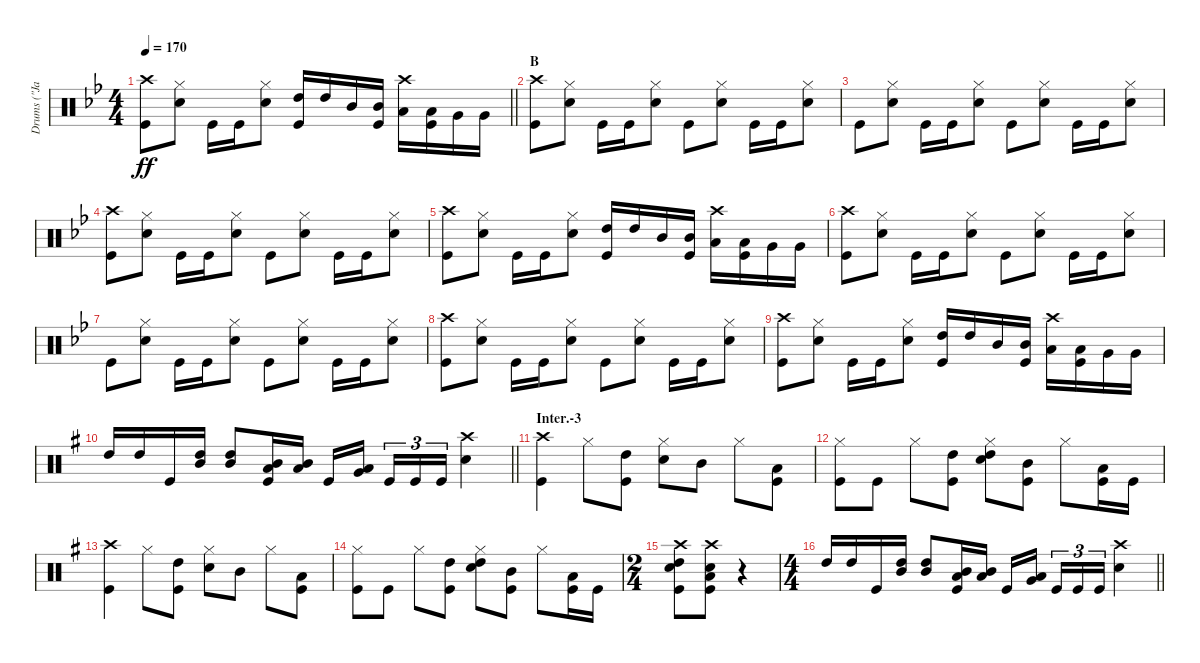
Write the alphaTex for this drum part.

\track ("Drums (\"Jane\")" "Drums (\"Ja") {instrument percussion}
\staff {score}
\articulation defaults
\ts (4 4)
\tempo 170
\clef neutral
\barLineRight lightlight
\ks bb
("Crash high (hit)" "Kick (hit)").8{dy ff} ("Hi-Hat (closed)" "Snare (hit) 2").8 "Kick (hit)".16 "Kick (hit)".16 ("Hi-Hat (closed)" "Snare (hit) 2").8 ("High Tom (hit)" "Kick (hit)").16 "High Tom (hit)".16 "Mid Tom (hit)".16 ("Mid Tom (hit)" "Kick (hit)").16 ("Crash high (hit)" "Low Tom (hit)").16 ("Low Tom (hit)" "Kick (hit)").16 "Very Low Tom (hit)".16 "Very Low Tom (hit)".16 |
\section ("" "B")
("Crash high (hit)" "Kick (hit)").8 ("Hi-Hat (closed)" "Snare (hit) 2").8 "Kick (hit)".16 "Kick (hit)".16 ("Hi-Hat (closed)" "Snare (hit) 2").8 "Kick (hit)".8 ("Hi-Hat (closed)" "Snare (hit) 2").8 "Kick (hit)".16 "Kick (hit)".16 ("Hi-Hat (closed)" "Snare (hit) 2").8 |
"Kick (hit)".8 ("Hi-Hat (closed)" "Snare (hit) 2").8 "Kick (hit)".16 "Kick (hit)".16 ("Hi-Hat (closed)" "Snare (hit) 2").8 "Kick (hit)".8 ("Hi-Hat (closed)" "Snare (hit) 2").8 "Kick (hit)".16 "Kick (hit)".16 ("Hi-Hat (closed)" "Snare (hit) 2").8 |
("Crash high (hit)" "Kick (hit)").8 ("Hi-Hat (closed)" "Snare (hit) 2").8 "Kick (hit)".16 "Kick (hit)".16 ("Hi-Hat (closed)" "Snare (hit) 2").8 "Kick (hit)".8 ("Hi-Hat (closed)" "Snare (hit) 2").8 "Kick (hit)".16 "Kick (hit)".16 ("Hi-Hat (closed)" "Snare (hit) 2").8 |
("Crash high (hit)" "Kick (hit)").8 ("Hi-Hat (closed)" "Snare (hit) 2").8 "Kick (hit)".16 "Kick (hit)".16 ("Hi-Hat (closed)" "Snare (hit) 2").8 ("High Tom (hit)" "Kick (hit)").16 "High Tom (hit)".16 "Mid Tom (hit)".16 ("Mid Tom (hit)" "Kick (hit)").16 ("Crash high (hit)" "Low Tom (hit)").16 ("Low Tom (hit)" "Kick (hit)").16 "Very Low Tom (hit)".16 "Very Low Tom (hit)".16 |
("Crash high (hit)" "Kick (hit)").8 ("Hi-Hat (closed)" "Snare (hit) 2").8 "Kick (hit)".16 "Kick (hit)".16 ("Hi-Hat (closed)" "Snare (hit) 2").8 "Kick (hit)".8 ("Hi-Hat (closed)" "Snare (hit) 2").8 "Kick (hit)".16 "Kick (hit)".16 ("Hi-Hat (closed)" "Snare (hit) 2").8 |
"Kick (hit)".8 ("Hi-Hat (closed)" "Snare (hit) 2").8 "Kick (hit)".16 "Kick (hit)".16 ("Hi-Hat (closed)" "Snare (hit) 2").8 "Kick (hit)".8 ("Hi-Hat (closed)" "Snare (hit) 2").8 "Kick (hit)".16 "Kick (hit)".16 ("Hi-Hat (closed)" "Snare (hit) 2").8 |
("Crash high (hit)" "Kick (hit)").8 ("Hi-Hat (closed)" "Snare (hit) 2").8 "Kick (hit)".16 "Kick (hit)".16 ("Hi-Hat (closed)" "Snare (hit) 2").8 "Kick (hit)".8 ("Hi-Hat (closed)" "Snare (hit) 2").8 "Kick (hit)".16 "Kick (hit)".16 ("Hi-Hat (closed)" "Snare (hit) 2").8 |
("Crash high (hit)" "Kick (hit)").8 ("Hi-Hat (closed)" "Snare (hit) 2").8 "Kick (hit)".16 "Kick (hit)".16 ("Hi-Hat (closed)" "Snare (hit) 2").8 ("High Tom (hit)" "Kick (hit)").16 "High Tom (hit)".16 "Mid Tom (hit)".16 ("Mid Tom (hit)" "Kick (hit)").16 ("Crash high (hit)" "Low Tom (hit)").16 ("Low Tom (hit)" "Kick (hit)").16 "Very Low Tom (hit)".16 "Very Low Tom (hit)".16 |
\barLineRight lightlight
\ks g "High Tom (hit)".16 "High Tom (hit)".16 "Kick (hit)".16
("High Tom (hit)" "Mid Tom (hit)").16 ("High Tom (hit)" "Mid Tom (hit)").8 ("Low Tom (hit)" "Mid Tom (hit)" "Kick (hit)").16 ("Low Tom (hit)" "Mid Tom (hit)").16 "Kick (hit)".16 ("Low Tom (hit)" "Very Low Tom (hit)").16{beam splitsecondary} "Kick (hit)".16{tu (3 2)} "Kick (hit)".16{tu (3 2)} "Kick (hit)".16{tu (3 2)} ("Crash high (hit)" "Snare (hit) 2").4 |
\section ("" "Inter.-3")
("Crash high (hit)" "Kick (hit)").4 "Hi-Hat (closed)".8 ("High Tom (hit)" "Kick (hit)").8 ("Hi-Hat (closed)" "Snare (hit) 2").8 "Mid Tom (hit)".8 "Hi-Hat (closed)".8 ("Low Tom (hit)" "Kick (hit)").8 |
("Hi-Hat (closed)" "Kick (hit)").8 "Kick (hit)".8 "Hi-Hat (closed)".8 ("High Tom (hit)" "Kick (hit)").8 ("Hi-Hat (closed)" "Snare (hit) 2" "High Tom (hit)").8 ("Mid Tom (hit)" "Kick (hit)").8 "Hi-Hat (closed)".8 ("Low Tom (hit)" "Kick (hit)").16 "Kick (hit)".16 |
("Crash high (hit)" "Kick (hit)").4 "Hi-Hat (closed)".8 ("High Tom (hit)" "Kick (hit)").8 ("Hi-Hat (closed)" "Snare (hit) 2").8 "Mid Tom (hit)".8 "Hi-Hat (closed)".8 ("Low Tom (hit)" "Kick (hit)").8 |
("Hi-Hat (closed)" "Kick (hit)").8 "Kick (hit)".8 "Hi-Hat (closed)".8 ("High Tom (hit)" "Kick (hit)").8 ("Hi-Hat (closed)" "Snare (hit) 2" "High Tom (hit)").8 ("Mid Tom (hit)" "Kick (hit)").8 "Hi-Hat (closed)".8 ("Low Tom (hit)" "Kick (hit)").16 "Kick (hit)".16 |
\ts (2 4)
("Crash high (hit)" "Snare (hit) 2" "High Tom (hit)" "Kick (hit)").8 ("Crash high (hit)" "Snare (hit) 2" "Low Tom (hit)" "Kick (hit)").8 r.4 |
\ts (4 4)
\barLineRight lightlight "High Tom (hit)".16 "High Tom (hit)".16 "Kick (hit)".16
("High Tom (hit)" "Mid Tom (hit)").16 ("High Tom (hit)" "Mid Tom (hit)").8 ("Low Tom (hit)" "Mid Tom (hit)" "Kick (hit)").16 ("Low Tom (hit)" "Mid Tom (hit)").16 "Kick (hit)".16 ("Low Tom (hit)" "Very Low Tom (hit)").16{beam splitsecondary} "Kick (hit)".16{tu (3 2)} "Kick (hit)".16{tu (3 2)} "Kick (hit)".16{tu (3 2)} ("Crash high (hit)" "Snare (hit) 2").4
